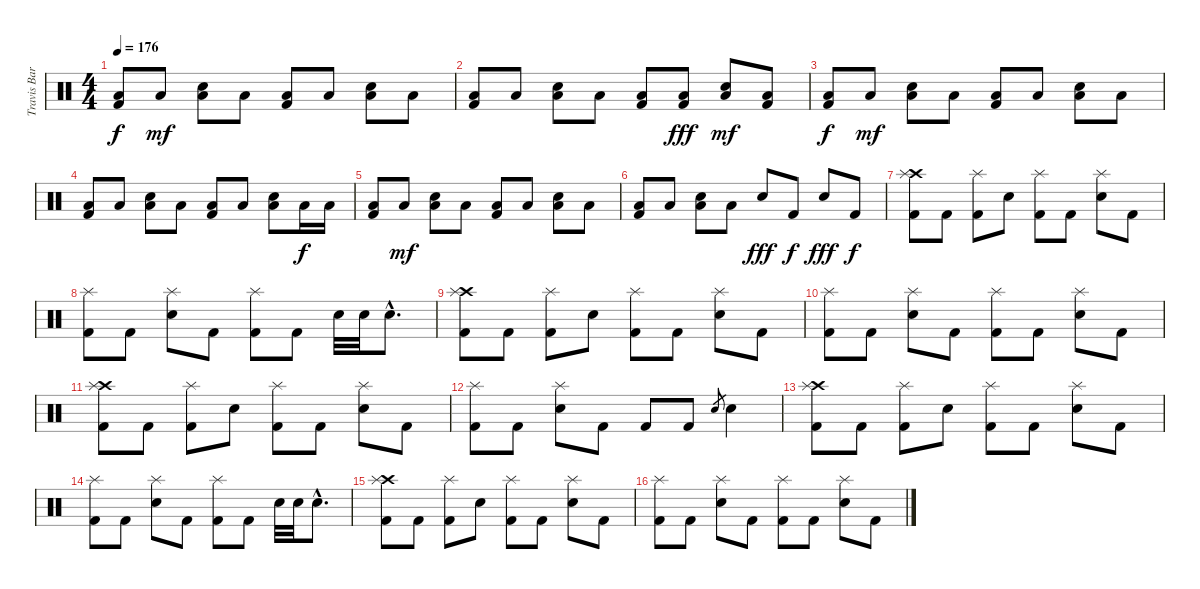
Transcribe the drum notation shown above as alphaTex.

\track ("Travis Barker - Drums" "Travis Bar") {instrument percussion}
\staff {score}
\articulation defaults
\ts (4 4)
\tempo 176
\clef neutral
\ks c
("Low Floor Tom (hit)" "Kick (hit) 2").8{dy f} "Low Floor Tom (hit)".8{dy mf} ("Low Floor Tom (hit)" "Electric Snare (hit)").8 "Low Floor Tom (hit)".8 ("Low Floor Tom (hit)" "Kick (hit) 2").8 "Low Floor Tom (hit)".8 ("Low Floor Tom (hit)" "Electric Snare (hit)").8 "Low Floor Tom (hit)".8 |
("Low Floor Tom (hit)" "Kick (hit) 2").8 "Low Floor Tom (hit)".8 ("Low Floor Tom (hit)" "Electric Snare (hit)").8 "Low Floor Tom (hit)".8 ("Low Floor Tom (hit)" "Kick (hit) 2").8 ("Low Tom (hit)" "Kick (hit) 2").8{dy fff} ("Low Floor Tom (hit)" "Electric Snare (hit)").8{dy mf} ("Low Floor Tom (hit)" "Kick (hit) 2").8 |
("Low Floor Tom (hit)" "Kick (hit) 2").8{dy f} "Low Floor Tom (hit)".8{dy mf} ("Low Floor Tom (hit)" "Electric Snare (hit)").8 "Low Floor Tom (hit)".8 ("Low Floor Tom (hit)" "Kick (hit) 2").8 "Low Floor Tom (hit)".8 ("Low Floor Tom (hit)" "Electric Snare (hit)").8 "Low Floor Tom (hit)".8 |
("Low Floor Tom (hit)" "Kick (hit) 2").8 "Low Floor Tom (hit)".8 ("Low Floor Tom (hit)" "Electric Snare (hit)").8 "Low Floor Tom (hit)".8 ("Low Floor Tom (hit)" "Kick (hit) 2").8 "Low Floor Tom (hit)".8 ("Low Floor Tom (hit)" "Electric Snare (hit)").8 "Low Tom (hit)".16{dy f} "Low Tom (hit)".16 |
("Low Floor Tom (hit)" "Kick (hit) 2").8 "Low Floor Tom (hit)".8{dy mf} ("Low Floor Tom (hit)" "Electric Snare (hit)").8 "Low Floor Tom (hit)".8 ("Low Floor Tom (hit)" "Kick (hit) 2").8 "Low Floor Tom (hit)".8 ("Low Floor Tom (hit)" "Electric Snare (hit)").8 "Low Floor Tom (hit)".8 |
("Low Floor Tom (hit)" "Kick (hit) 2").8 "Low Floor Tom (hit)".8 ("Low Floor Tom (hit)" "Electric Snare (hit)").8 "Low Floor Tom (hit)".8 "Electric Snare (hit)".8{dy fff} "Kick (hit) 2".8{dy f} "Electric Snare (hit)".8{dy fff} "Kick (hit) 2".8{dy f} |
("Crash high (hit)" "Splash (hit)" "Kick (hit) 2").8 "Kick (hit) 2".8 ("Splash (hit)" "Kick (hit) 2").8 "Electric Snare (hit)".8 ("Splash (hit)" "Kick (hit) 2").8 "Kick (hit) 2".8 ("Splash (hit)" "Electric Snare (hit)").8 "Kick (hit) 2".8 |
("Splash (hit)" "Kick (hit) 2").8 "Kick (hit) 2".8 ("Splash (hit)" "Electric Snare (hit)").8 "Kick (hit) 2".8 ("Splash (hit)" "Kick (hit) 2").8 "Kick (hit) 2".8 "Electric Snare (hit)".32 "Electric Snare (hit)".32 "Electric Snare (hit)"{hac}.8{d} |
("Crash high (hit)" "Splash (hit)" "Kick (hit) 2").8 "Kick (hit) 2".8 ("Splash (hit)" "Kick (hit) 2").8 "Electric Snare (hit)".8 ("Splash (hit)" "Kick (hit) 2").8 "Kick (hit) 2".8 ("Splash (hit)" "Electric Snare (hit)").8 "Kick (hit) 2".8 |
("Splash (hit)" "Kick (hit) 2").8 "Kick (hit) 2".8 ("Splash (hit)" "Electric Snare (hit)").8 "Kick (hit) 2".8 ("Splash (hit)" "Kick (hit) 2").8 "Kick (hit) 2".8 ("Splash (hit)" "Electric Snare (hit)").8 "Kick (hit) 2".8 |
("Crash high (hit)" "Splash (hit)" "Kick (hit) 2").8 "Kick (hit) 2".8 ("Splash (hit)" "Kick (hit) 2").8 "Electric Snare (hit)".8 ("Splash (hit)" "Kick (hit) 2").8 "Kick (hit) 2".8 ("Splash (hit)" "Electric Snare (hit)").8 "Kick (hit) 2".8 |
("Splash (hit)" "Kick (hit) 2").8 "Kick (hit) 2".8 ("Splash (hit)" "Electric Snare (hit)").8 "Kick (hit) 2".8 "Kick (hit) 2".8 "Kick (hit) 2".8 "Electric Snare (hit)"{sl}.8{gr} "Electric Snare (hit)".4 |
("Crash high (hit)" "Splash (hit)" "Kick (hit) 2").8 "Kick (hit) 2".8 ("Splash (hit)" "Kick (hit) 2").8 "Electric Snare (hit)".8 ("Splash (hit)" "Kick (hit) 2").8 "Kick (hit) 2".8 ("Splash (hit)" "Electric Snare (hit)").8 "Kick (hit) 2".8 |
("Splash (hit)" "Kick (hit) 2").8 "Kick (hit) 2".8 ("Splash (hit)" "Electric Snare (hit)").8 "Kick (hit) 2".8 ("Splash (hit)" "Kick (hit) 2").8 "Kick (hit) 2".8 "Electric Snare (hit)".32 "Electric Snare (hit)".32 "Electric Snare (hit)"{hac}.8{d} |
("Crash high (hit)" "Splash (hit)" "Kick (hit) 2").8 "Kick (hit) 2".8 ("Splash (hit)" "Kick (hit) 2").8 "Electric Snare (hit)".8 ("Splash (hit)" "Kick (hit) 2").8 "Kick (hit) 2".8 ("Splash (hit)" "Electric Snare (hit)").8 "Kick (hit) 2".8 |
("Splash (hit)" "Kick (hit) 2").8 "Kick (hit) 2".8 ("Splash (hit)" "Electric Snare (hit)").8 "Kick (hit) 2".8 ("Splash (hit)" "Kick (hit) 2").8 "Kick (hit) 2".8 ("Splash (hit)" "Electric Snare (hit)").8 "Kick (hit) 2".8
